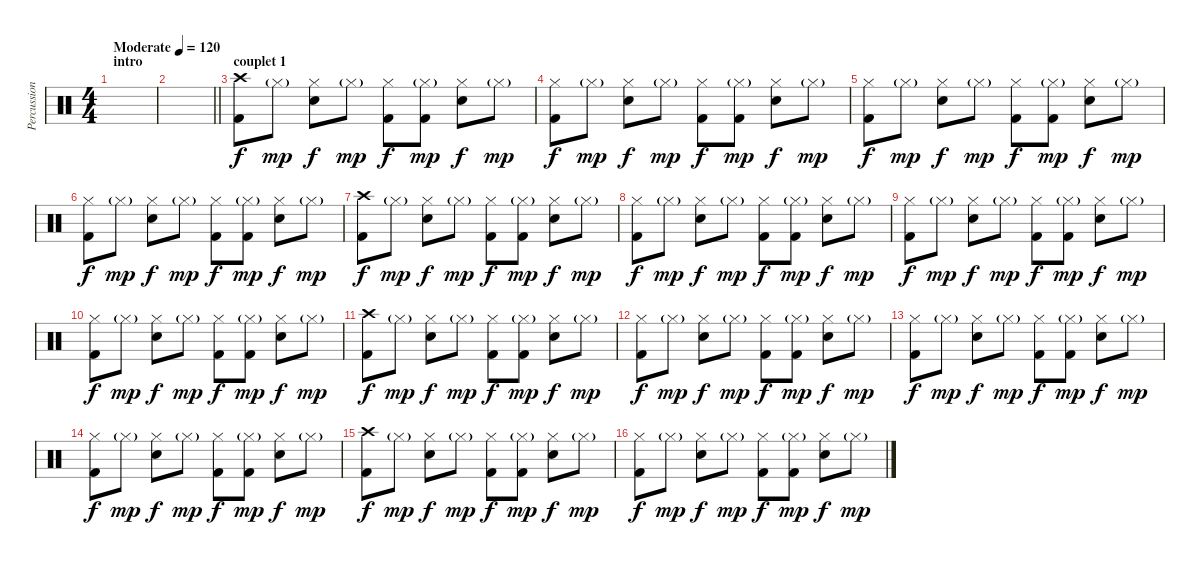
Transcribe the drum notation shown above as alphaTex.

\track ("Percussions" "Percussion") {instrument percussion}
\staff {score}
\articulation defaults
\ts (4 4)
\section ("" "intro")
\tempo (120 "Moderate")
\clef neutral
\ks c
|
\barLineRight lightlight
|
\section ("" "couplet 1")
("Crash high (hit)" "Kick (hit) 2").8 "Hi-Hat (closed)"{g}.8{dy mp} ("Hi-Hat (closed)" "Snare (hit) 2").8{dy f} "Hi-Hat (closed)"{g}.8{dy mp} ("Hi-Hat (closed)" "Kick (hit) 2").8{dy f} ("Hi-Hat (closed)"{g} "Kick (hit) 2").8{dy mp} ("Hi-Hat (closed)" "Snare (hit) 2").8{dy f} "Hi-Hat (closed)"{g}.8{dy mp} |
("Hi-Hat (closed)" "Kick (hit) 2").8{dy f} "Hi-Hat (closed)"{g}.8{dy mp} ("Hi-Hat (closed)" "Snare (hit) 2").8{dy f} "Hi-Hat (closed)"{g}.8{dy mp} ("Hi-Hat (closed)" "Kick (hit) 2").8{dy f} ("Hi-Hat (closed)"{g} "Kick (hit) 2").8{dy mp} ("Hi-Hat (closed)" "Snare (hit) 2").8{dy f} "Hi-Hat (closed)"{g}.8{dy mp} |
("Hi-Hat (closed)" "Kick (hit) 2").8{dy f} "Hi-Hat (closed)"{g}.8{dy mp} ("Hi-Hat (closed)" "Snare (hit) 2").8{dy f} "Hi-Hat (closed)"{g}.8{dy mp} ("Hi-Hat (closed)" "Kick (hit) 2").8{dy f} ("Hi-Hat (closed)"{g} "Kick (hit) 2").8{dy mp} ("Hi-Hat (closed)" "Snare (hit) 2").8{dy f} "Hi-Hat (closed)"{g}.8{dy mp} |
("Hi-Hat (closed)" "Kick (hit) 2").8{dy f} "Hi-Hat (closed)"{g}.8{dy mp} ("Hi-Hat (closed)" "Snare (hit) 2").8{dy f} "Hi-Hat (closed)"{g}.8{dy mp} ("Hi-Hat (closed)" "Kick (hit) 2").8{dy f} ("Hi-Hat (closed)"{g} "Kick (hit) 2").8{dy mp} ("Hi-Hat (closed)" "Snare (hit) 2").8{dy f} "Hi-Hat (closed)"{g}.8{dy mp} |
("Crash high (hit)" "Kick (hit) 2").8{dy f} "Hi-Hat (closed)"{g}.8{dy mp} ("Hi-Hat (closed)" "Snare (hit) 2").8{dy f} "Hi-Hat (closed)"{g}.8{dy mp} ("Hi-Hat (closed)" "Kick (hit) 2").8{dy f} ("Hi-Hat (closed)"{g} "Kick (hit) 2").8{dy mp} ("Hi-Hat (closed)" "Snare (hit) 2").8{dy f} "Hi-Hat (closed)"{g}.8{dy mp} |
("Hi-Hat (closed)" "Kick (hit) 2").8{dy f} "Hi-Hat (closed)"{g}.8{dy mp} ("Hi-Hat (closed)" "Snare (hit) 2").8{dy f} "Hi-Hat (closed)"{g}.8{dy mp} ("Hi-Hat (closed)" "Kick (hit) 2").8{dy f} ("Hi-Hat (closed)"{g} "Kick (hit) 2").8{dy mp} ("Hi-Hat (closed)" "Snare (hit) 2").8{dy f} "Hi-Hat (closed)"{g}.8{dy mp} |
("Hi-Hat (closed)" "Kick (hit) 2").8{dy f} "Hi-Hat (closed)"{g}.8{dy mp} ("Hi-Hat (closed)" "Snare (hit) 2").8{dy f} "Hi-Hat (closed)"{g}.8{dy mp} ("Hi-Hat (closed)" "Kick (hit) 2").8{dy f} ("Hi-Hat (closed)"{g} "Kick (hit) 2").8{dy mp} ("Hi-Hat (closed)" "Snare (hit) 2").8{dy f} "Hi-Hat (closed)"{g}.8{dy mp} |
("Hi-Hat (closed)" "Kick (hit) 2").8{dy f} "Hi-Hat (closed)"{g}.8{dy mp} ("Hi-Hat (closed)" "Snare (hit) 2").8{dy f} "Hi-Hat (closed)"{g}.8{dy mp} ("Hi-Hat (closed)" "Kick (hit) 2").8{dy f} ("Hi-Hat (closed)"{g} "Kick (hit) 2").8{dy mp} ("Hi-Hat (closed)" "Snare (hit) 2").8{dy f} "Hi-Hat (closed)"{g}.8{dy mp} |
("Crash high (hit)" "Kick (hit) 2").8{dy f} "Hi-Hat (closed)"{g}.8{dy mp} ("Hi-Hat (closed)" "Snare (hit) 2").8{dy f} "Hi-Hat (closed)"{g}.8{dy mp} ("Hi-Hat (closed)" "Kick (hit) 2").8{dy f} ("Hi-Hat (closed)"{g} "Kick (hit) 2").8{dy mp} ("Hi-Hat (closed)" "Snare (hit) 2").8{dy f} "Hi-Hat (closed)"{g}.8{dy mp} |
("Hi-Hat (closed)" "Kick (hit) 2").8{dy f} "Hi-Hat (closed)"{g}.8{dy mp} ("Hi-Hat (closed)" "Snare (hit) 2").8{dy f} "Hi-Hat (closed)"{g}.8{dy mp} ("Hi-Hat (closed)" "Kick (hit) 2").8{dy f} ("Hi-Hat (closed)"{g} "Kick (hit) 2").8{dy mp} ("Hi-Hat (closed)" "Snare (hit) 2").8{dy f} "Hi-Hat (closed)"{g}.8{dy mp} |
("Hi-Hat (closed)" "Kick (hit) 2").8{dy f} "Hi-Hat (closed)"{g}.8{dy mp} ("Hi-Hat (closed)" "Snare (hit) 2").8{dy f} "Hi-Hat (closed)"{g}.8{dy mp} ("Hi-Hat (closed)" "Kick (hit) 2").8{dy f} ("Hi-Hat (closed)"{g} "Kick (hit) 2").8{dy mp} ("Hi-Hat (closed)" "Snare (hit) 2").8{dy f} "Hi-Hat (closed)"{g}.8{dy mp} |
("Hi-Hat (closed)" "Kick (hit) 2").8{dy f} "Hi-Hat (closed)"{g}.8{dy mp} ("Hi-Hat (closed)" "Snare (hit) 2").8{dy f} "Hi-Hat (closed)"{g}.8{dy mp} ("Hi-Hat (closed)" "Kick (hit) 2").8{dy f} ("Hi-Hat (closed)"{g} "Kick (hit) 2").8{dy mp} ("Hi-Hat (closed)" "Snare (hit) 2").8{dy f} "Hi-Hat (closed)"{g}.8{dy mp} |
("Crash high (hit)" "Kick (hit) 2").8{dy f} "Hi-Hat (closed)"{g}.8{dy mp} ("Hi-Hat (closed)" "Snare (hit) 2").8{dy f} "Hi-Hat (closed)"{g}.8{dy mp} ("Hi-Hat (closed)" "Kick (hit) 2").8{dy f} ("Hi-Hat (closed)"{g} "Kick (hit) 2").8{dy mp} ("Hi-Hat (closed)" "Snare (hit) 2").8{dy f} "Hi-Hat (closed)"{g}.8{dy mp} |
("Hi-Hat (closed)" "Kick (hit) 2").8{dy f} "Hi-Hat (closed)"{g}.8{dy mp} ("Hi-Hat (closed)" "Snare (hit) 2").8{dy f} "Hi-Hat (closed)"{g}.8{dy mp} ("Hi-Hat (closed)" "Kick (hit) 2").8{dy f} ("Hi-Hat (closed)"{g} "Kick (hit) 2").8{dy mp} ("Hi-Hat (closed)" "Snare (hit) 2").8{dy f} "Hi-Hat (closed)"{g}.8{dy mp}
